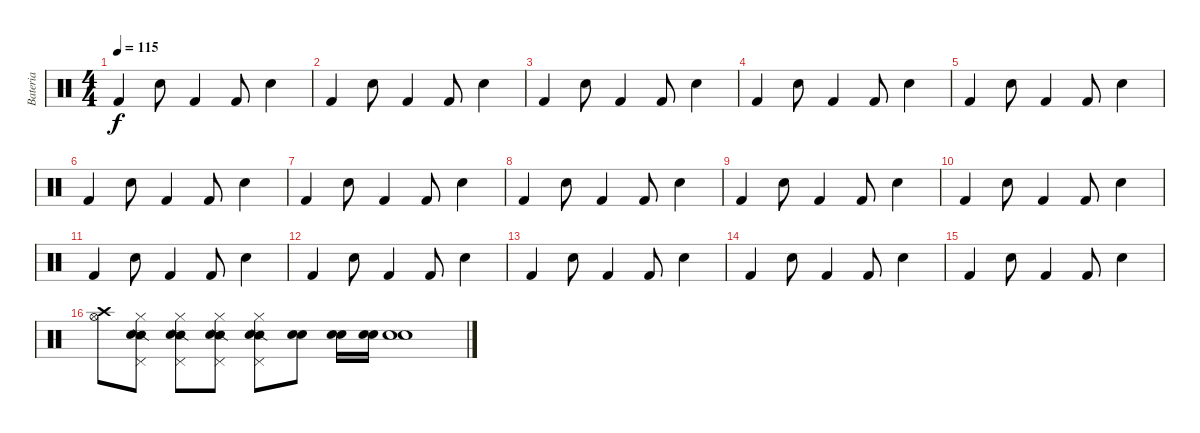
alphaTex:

\track ("Bateria" "Bateria") {instrument percussion}
\staff {score}
\articulation defaults
\ts (4 4)
\tempo 115
\clef neutral
\ks c "Kick (hit) 2".4{dy f} "Snare (hit) 2".8 "Kick (hit) 2".4 "Kick (hit) 2".8 "Snare (hit) 2".4
|
"Kick (hit) 2".4 "Snare (hit) 2".8 "Kick (hit) 2".4 "Kick (hit) 2".8 "Snare (hit) 2".4 |
"Kick (hit) 2".4 "Snare (hit) 2".8 "Kick (hit) 2".4 "Kick (hit) 2".8 "Snare (hit) 2".4 |
"Kick (hit) 2".4 "Snare (hit) 2".8 "Kick (hit) 2".4 "Kick (hit) 2".8 "Snare (hit) 2".4 |
"Kick (hit) 2".4 "Snare (hit) 2".8 "Kick (hit) 2".4 "Kick (hit) 2".8 "Snare (hit) 2".4 |
"Kick (hit) 2".4 "Snare (hit) 2".8 "Kick (hit) 2".4 "Kick (hit) 2".8 "Snare (hit) 2".4 |
"Kick (hit) 2".4 "Snare (hit) 2".8 "Kick (hit) 2".4 "Kick (hit) 2".8 "Snare (hit) 2".4 |
"Kick (hit) 2".4 "Snare (hit) 2".8 "Kick (hit) 2".4 "Kick (hit) 2".8 "Snare (hit) 2".4 |
"Kick (hit) 2".4 "Snare (hit) 2".8 "Kick (hit) 2".4 "Kick (hit) 2".8 "Snare (hit) 2".4 |
"Kick (hit) 2".4 "Snare (hit) 2".8 "Kick (hit) 2".4 "Kick (hit) 2".8 "Snare (hit) 2".4 |
"Kick (hit) 2".4 "Snare (hit) 2".8 "Kick (hit) 2".4 "Kick (hit) 2".8 "Snare (hit) 2".4 |
"Kick (hit) 2".4 "Snare (hit) 2".8 "Kick (hit) 2".4 "Kick (hit) 2".8 "Snare (hit) 2".4 |
"Kick (hit) 2".4 "Snare (hit) 2".8 "Kick (hit) 2".4 "Kick (hit) 2".8 "Snare (hit) 2".4 |
"Kick (hit) 2".4 "Snare (hit) 2".8 "Kick (hit) 2".4 "Kick (hit) 2".8 "Snare (hit) 2".4 |
"Kick (hit) 2".4 "Snare (hit) 2".8 "Kick (hit) 2".4 "Kick (hit) 2".8 "Snare (hit) 2".4 |
("Hi-Hat (open)" "Crash high (hit)").8 ("Snare (side stick) 2" "Pedal Hi-Hat (hit)" "Hi-Hat (closed)" "Electric Snare (hit)").8 ("Snare (side stick) 2" "Pedal Hi-Hat (hit)" "Hi-Hat (closed)" "Electric Snare (hit)").8 ("Snare (side stick) 2" "Pedal Hi-Hat (hit)" "Hi-Hat (closed)" "Electric Snare (hit)").8 ("Snare (side stick) 2" "Pedal Hi-Hat (hit)" "Hi-Hat (closed)" "Electric Snare (hit)").8 ("Electric Snare (hit)" "Snare (hit) 2").8 ("Electric Snare (hit)" "Snare (hit) 2").16 ("Electric Snare (hit)" "Snare (hit) 2").16 ("Electric Snare (hit)" "Snare (hit) 2").1
